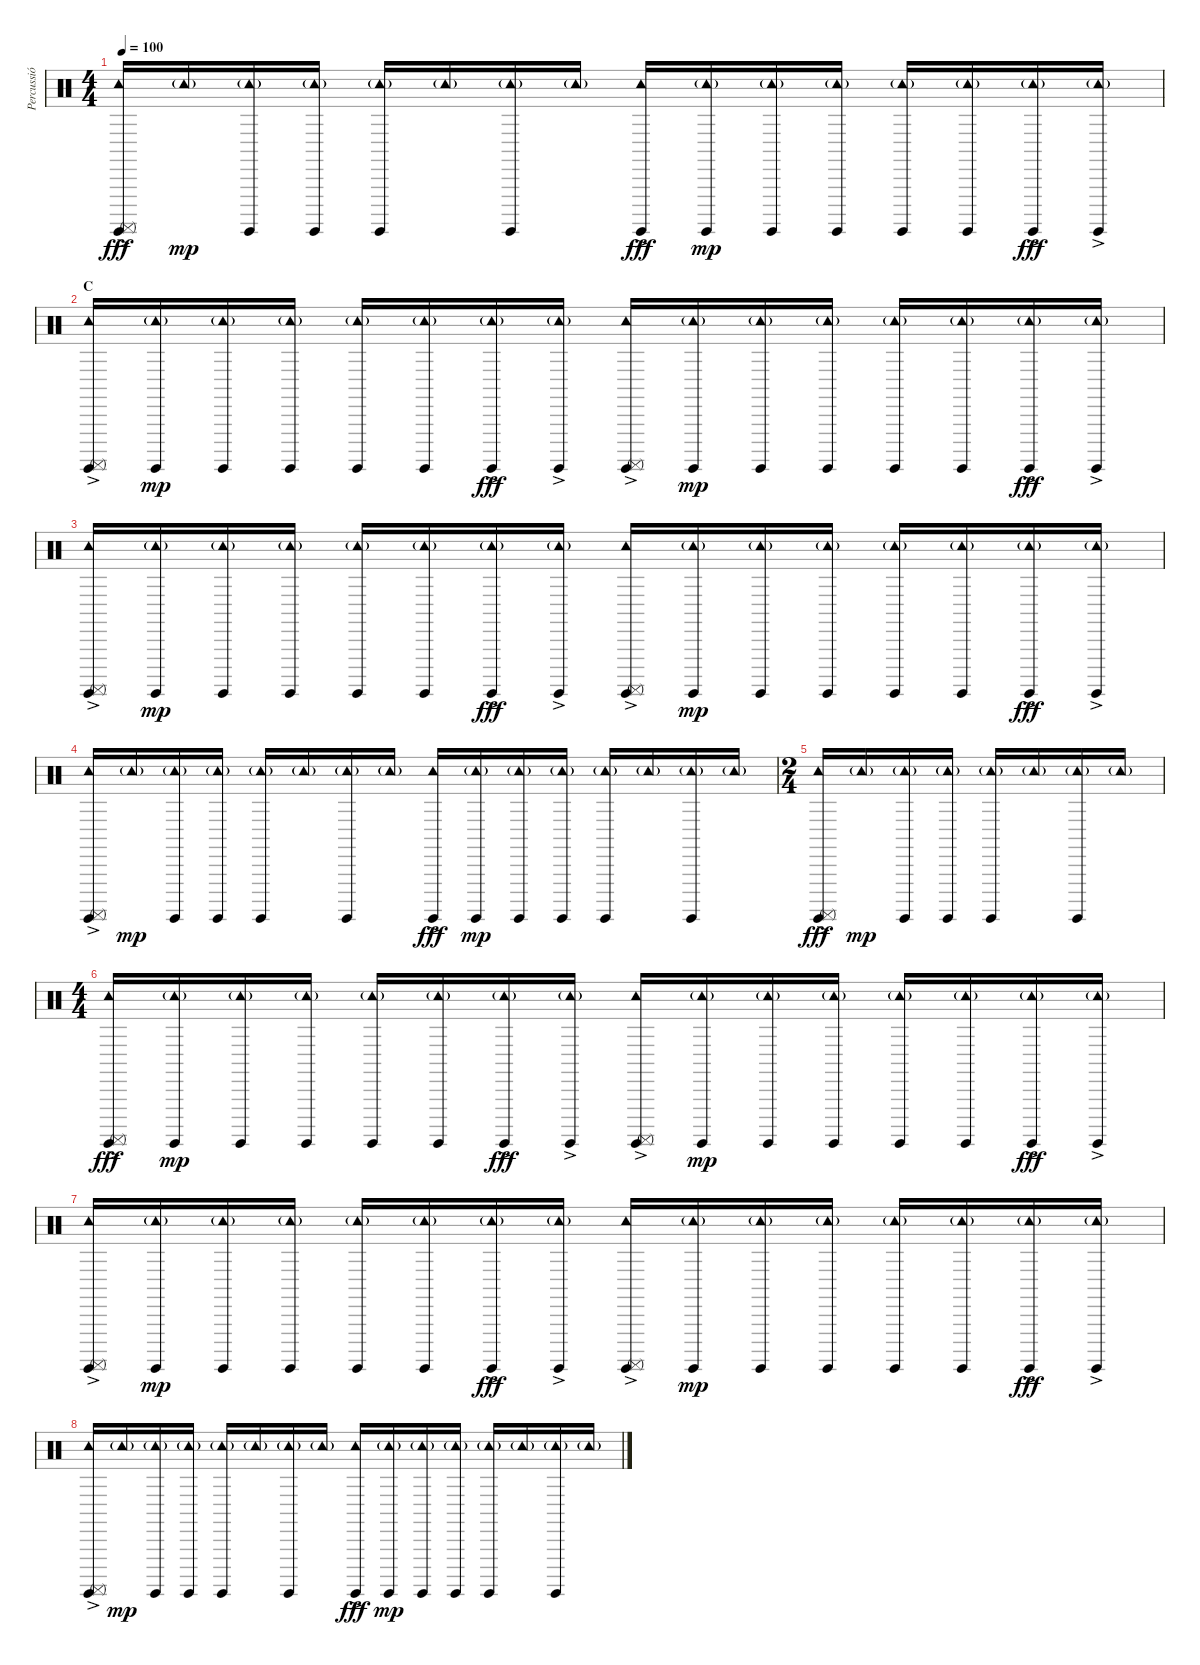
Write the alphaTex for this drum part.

\track ("Percussió" "Percussió") {instrument percussion}
\staff {score}
\articulation defaults
\ts (4 4)
\tempo 100
\clef neutral
\ks c
("Tambourine (hit)"{ac} "Surdo (hit)" "Surdo (mute)"{ac}).16{dy fff} "Tambourine (hit)"{g}.16{dy mp} ("Tambourine (hit)"{g} "Surdo (hit)").16 ("Tambourine (hit)"{g} "Surdo (hit)").16 ("Tambourine (hit)"{g} "Surdo (hit)").16 "Tambourine (hit)"{g}.16 ("Tambourine (hit)"{g} "Surdo (hit)").16 "Tambourine (hit)"{g}.16 ("Tambourine (hit)"{ac} "Surdo (hit)"{ac}).16{dy fff} ("Tambourine (hit)"{g} "Surdo (hit)").16{dy mp} ("Tambourine (hit)"{g} "Surdo (hit)").16 ("Tambourine (hit)"{g} "Surdo (hit)").16 ("Tambourine (hit)"{g} "Surdo (hit)").16 ("Tambourine (hit)"{g} "Surdo (hit)").16 ("Tambourine (hit)"{g} "Surdo (hit)"{ac}).16{dy fff} ("Tambourine (hit)"{g} "Surdo (hit)"{ac}).16 |
\section ("" "C")
("Tambourine (hit)"{ac} "Surdo (hit)" "Surdo (mute)"{ac}).16 ("Tambourine (hit)"{g} "Surdo (hit)").16{dy mp} ("Tambourine (hit)"{g} "Surdo (hit)").16 ("Tambourine (hit)"{g} "Surdo (hit)").16 ("Tambourine (hit)"{g} "Surdo (hit)").16 ("Tambourine (hit)"{g} "Surdo (hit)").16 ("Tambourine (hit)"{g} "Surdo (hit)"{ac}).16{dy fff} ("Tambourine (hit)"{g} "Surdo (hit)"{ac}).16 ("Tambourine (hit)"{ac} "Surdo (hit)"{ac} "Surdo (mute)"{ac}).16 ("Tambourine (hit)"{g} "Surdo (hit)").16{dy mp} ("Tambourine (hit)"{g} "Surdo (hit)").16 ("Tambourine (hit)"{g} "Surdo (hit)").16 ("Tambourine (hit)"{g} "Surdo (hit)").16 ("Tambourine (hit)"{g} "Surdo (hit)").16 ("Tambourine (hit)"{g} "Surdo (hit)"{ac}).16{dy fff} ("Tambourine (hit)"{g} "Surdo (hit)"{ac}).16 |
("Tambourine (hit)"{ac} "Surdo (hit)" "Surdo (mute)"{ac}).16 ("Tambourine (hit)"{g} "Surdo (hit)").16{dy mp} ("Tambourine (hit)"{g} "Surdo (hit)").16 ("Tambourine (hit)"{g} "Surdo (hit)").16 ("Tambourine (hit)"{g} "Surdo (hit)").16 ("Tambourine (hit)"{g} "Surdo (hit)").16 ("Tambourine (hit)"{g} "Surdo (hit)"{ac}).16{dy fff} ("Tambourine (hit)"{g} "Surdo (hit)"{ac}).16 ("Tambourine (hit)"{ac} "Surdo (hit)"{ac} "Surdo (mute)"{ac}).16 ("Tambourine (hit)"{g} "Surdo (hit)").16{dy mp} ("Tambourine (hit)"{g} "Surdo (hit)").16 ("Tambourine (hit)"{g} "Surdo (hit)").16 ("Tambourine (hit)"{g} "Surdo (hit)").16 ("Tambourine (hit)"{g} "Surdo (hit)").16 ("Tambourine (hit)"{g} "Surdo (hit)"{ac}).16{dy fff} ("Tambourine (hit)"{g} "Surdo (hit)"{ac}).16 |
("Tambourine (hit)"{ac} "Surdo (hit)" "Surdo (mute)"{ac}).16 "Tambourine (hit)"{g}.16{dy mp} ("Tambourine (hit)"{g} "Surdo (hit)").16 ("Tambourine (hit)"{g} "Surdo (hit)").16 ("Tambourine (hit)"{g} "Surdo (hit)").16 "Tambourine (hit)"{g}.16 ("Tambourine (hit)"{g} "Surdo (hit)").16 "Tambourine (hit)"{g}.16 ("Tambourine (hit)"{ac} "Surdo (hit)"{ac}).16{dy fff} ("Tambourine (hit)"{g} "Surdo (hit)").16{dy mp} ("Tambourine (hit)"{g} "Surdo (hit)").16 ("Tambourine (hit)"{g} "Surdo (hit)").16 ("Tambourine (hit)"{g} "Surdo (hit)").16 "Tambourine (hit)"{g}.16 ("Tambourine (hit)"{g} "Surdo (hit)").16 "Tambourine (hit)"{g}.16 |
\ts (2 4)
("Tambourine (hit)"{ac} "Surdo (hit)" "Surdo (mute)"{ac}).16{dy fff} "Tambourine (hit)"{g}.16{dy mp} ("Tambourine (hit)"{g} "Surdo (hit)").16 ("Tambourine (hit)"{g} "Surdo (hit)").16 ("Tambourine (hit)"{g} "Surdo (hit)").16 "Tambourine (hit)"{g}.16 ("Tambourine (hit)"{g} "Surdo (hit)").16 "Tambourine (hit)"{g}.16 |
\ts (4 4)
("Tambourine (hit)"{ac} "Surdo (hit)" "Surdo (mute)"{ac}).16{dy fff} ("Tambourine (hit)"{g} "Surdo (hit)").16{dy mp} ("Tambourine (hit)"{g} "Surdo (hit)").16 ("Tambourine (hit)"{g} "Surdo (hit)").16 ("Tambourine (hit)"{g} "Surdo (hit)").16 ("Tambourine (hit)"{g} "Surdo (hit)").16 ("Tambourine (hit)"{g} "Surdo (hit)"{ac}).16{dy fff} ("Tambourine (hit)"{g} "Surdo (hit)"{ac}).16 ("Tambourine (hit)"{ac} "Surdo (hit)"{ac} "Surdo (mute)"{ac}).16 ("Tambourine (hit)"{g} "Surdo (hit)").16{dy mp} ("Tambourine (hit)"{g} "Surdo (hit)").16 ("Tambourine (hit)"{g} "Surdo (hit)").16 ("Tambourine (hit)"{g} "Surdo (hit)").16 ("Tambourine (hit)"{g} "Surdo (hit)").16 ("Tambourine (hit)"{g} "Surdo (hit)"{ac}).16{dy fff} ("Tambourine (hit)"{g} "Surdo (hit)"{ac}).16 |
("Tambourine (hit)"{ac} "Surdo (hit)" "Surdo (mute)"{ac}).16 ("Tambourine (hit)"{g} "Surdo (hit)").16{dy mp} ("Tambourine (hit)"{g} "Surdo (hit)").16 ("Tambourine (hit)"{g} "Surdo (hit)").16 ("Tambourine (hit)"{g} "Surdo (hit)").16 ("Tambourine (hit)"{g} "Surdo (hit)").16 ("Tambourine (hit)"{g} "Surdo (hit)"{ac}).16{dy fff} ("Tambourine (hit)"{g} "Surdo (hit)"{ac}).16 ("Tambourine (hit)"{ac} "Surdo (hit)"{ac} "Surdo (mute)"{ac}).16 ("Tambourine (hit)"{g} "Surdo (hit)").16{dy mp} ("Tambourine (hit)"{g} "Surdo (hit)").16 ("Tambourine (hit)"{g} "Surdo (hit)").16 ("Tambourine (hit)"{g} "Surdo (hit)").16 ("Tambourine (hit)"{g} "Surdo (hit)").16 ("Tambourine (hit)"{g} "Surdo (hit)"{ac}).16{dy fff} ("Tambourine (hit)"{g} "Surdo (hit)"{ac}).16 |
("Tambourine (hit)"{ac} "Surdo (hit)" "Surdo (mute)"{ac}).16 "Tambourine (hit)"{g}.16{dy mp} ("Tambourine (hit)"{g} "Surdo (hit)").16 ("Tambourine (hit)"{g} "Surdo (hit)").16 ("Tambourine (hit)"{g} "Surdo (hit)").16 "Tambourine (hit)"{g}.16 ("Tambourine (hit)"{g} "Surdo (hit)").16 "Tambourine (hit)"{g}.16 ("Tambourine (hit)"{ac} "Surdo (hit)"{ac}).16{dy fff} ("Tambourine (hit)"{g} "Surdo (hit)").16{dy mp} ("Tambourine (hit)"{g} "Surdo (hit)").16 ("Tambourine (hit)"{g} "Surdo (hit)").16 ("Tambourine (hit)"{g} "Surdo (hit)").16 "Tambourine (hit)"{g}.16 ("Tambourine (hit)"{g} "Surdo (hit)").16 "Tambourine (hit)"{g}.16
